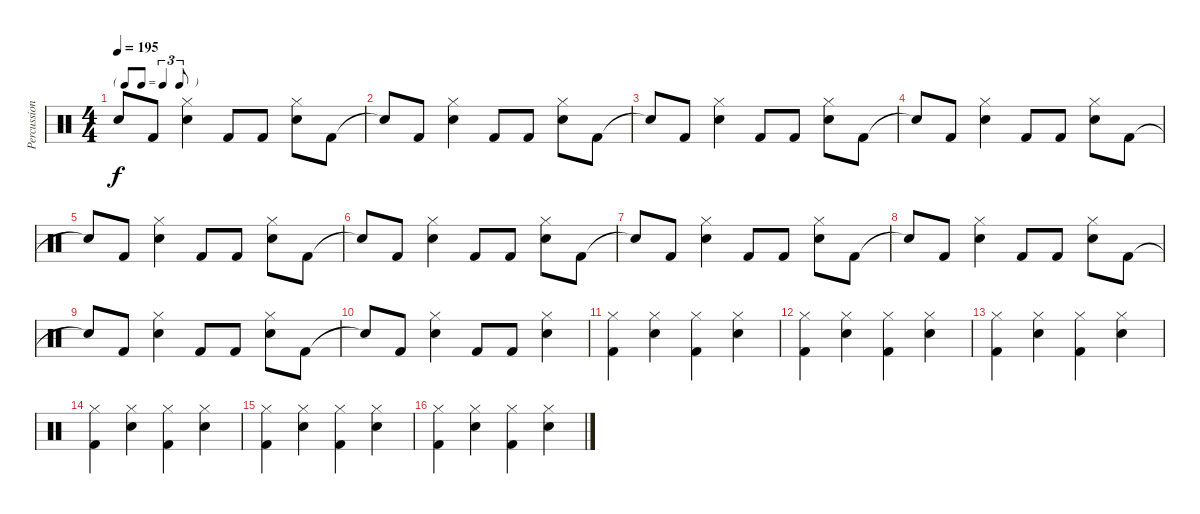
\track ("Percussions" "Percussion") {instrument percussion}
\staff {score}
\articulation defaults
\ts (4 4)
\tf triplet8th
\tempo 195
\clef neutral
\ks c "Snare (hit)"{t}.8{dy f} "Kick (hit) 2".8
("Snare (hit) 2" "Hi-Hat (closed)").4 "Kick (hit) 2".8 "Kick (hit) 2".8 ("Snare (hit) 2" "Hi-Hat (closed)").8 "Kick (hit) 2".8 |
"Snare (hit)"{t}.8 "Kick (hit) 2".8 ("Snare (hit) 2" "Hi-Hat (closed)").4 "Kick (hit) 2".8 "Kick (hit) 2".8 ("Snare (hit) 2" "Hi-Hat (closed)").8 "Kick (hit) 2".8 |
"Snare (hit)"{t}.8 "Kick (hit) 2".8 ("Snare (hit) 2" "Hi-Hat (closed)").4 "Kick (hit) 2".8 "Kick (hit) 2".8 ("Snare (hit) 2" "Hi-Hat (closed)").8 "Kick (hit) 2".8 |
"Snare (hit)"{t}.8 "Kick (hit) 2".8 ("Snare (hit) 2" "Hi-Hat (closed)").4 "Kick (hit) 2".8 "Kick (hit) 2".8 ("Snare (hit) 2" "Hi-Hat (closed)").8 "Kick (hit) 2".8 |
"Snare (hit)"{t}.8 "Kick (hit) 2".8 ("Snare (hit) 2" "Hi-Hat (closed)").4 "Kick (hit) 2".8 "Kick (hit) 2".8 ("Snare (hit) 2" "Hi-Hat (closed)").8 "Kick (hit) 2".8 |
"Snare (hit)"{t}.8 "Kick (hit) 2".8 ("Snare (hit) 2" "Hi-Hat (closed)").4 "Kick (hit) 2".8 "Kick (hit) 2".8 ("Snare (hit) 2" "Hi-Hat (closed)").8 "Kick (hit) 2".8 |
"Snare (hit)"{t}.8 "Kick (hit) 2".8 ("Snare (hit) 2" "Hi-Hat (closed)").4 "Kick (hit) 2".8 "Kick (hit) 2".8 ("Snare (hit) 2" "Hi-Hat (closed)").8 "Kick (hit) 2".8 |
"Snare (hit)"{t}.8 "Kick (hit) 2".8 ("Snare (hit) 2" "Hi-Hat (closed)").4 "Kick (hit) 2".8 "Kick (hit) 2".8 ("Snare (hit) 2" "Hi-Hat (closed)").8 "Kick (hit) 2".8 |
"Snare (hit)"{t}.8 "Kick (hit) 2".8 ("Snare (hit) 2" "Hi-Hat (closed)").4 "Kick (hit) 2".8 "Kick (hit) 2".8 ("Snare (hit) 2" "Hi-Hat (closed)").8 "Kick (hit) 2".8 |
"Snare (hit)"{t}.8 "Kick (hit) 2".8 ("Snare (hit) 2" "Hi-Hat (closed)").4 "Kick (hit) 2".8 "Kick (hit) 2".8 ("Snare (hit) 2" "Hi-Hat (closed)").4 |
("Hi-Hat (closed)" "Kick (hit) 2").4 ("Snare (hit) 2" "Hi-Hat (closed)").4 ("Hi-Hat (closed)" "Kick (hit) 2").4 ("Snare (hit) 2" "Hi-Hat (closed)").4 |
("Hi-Hat (closed)" "Kick (hit) 2").4 ("Snare (hit) 2" "Hi-Hat (closed)").4 ("Hi-Hat (closed)" "Kick (hit) 2").4 ("Snare (hit) 2" "Hi-Hat (closed)").4 |
("Hi-Hat (closed)" "Kick (hit) 2").4 ("Snare (hit) 2" "Hi-Hat (closed)").4 ("Hi-Hat (closed)" "Kick (hit) 2").4 ("Snare (hit) 2" "Hi-Hat (closed)").4 |
("Hi-Hat (closed)" "Kick (hit) 2").4 ("Snare (hit) 2" "Hi-Hat (closed)").4 ("Hi-Hat (closed)" "Kick (hit) 2").4 ("Snare (hit) 2" "Hi-Hat (closed)").4 |
("Hi-Hat (closed)" "Kick (hit) 2").4 ("Snare (hit) 2" "Hi-Hat (closed)").4 ("Hi-Hat (closed)" "Kick (hit) 2").4 ("Snare (hit) 2" "Hi-Hat (closed)").4 |
("Hi-Hat (closed)" "Kick (hit) 2").4 ("Snare (hit) 2" "Hi-Hat (closed)").4 ("Hi-Hat (closed)" "Kick (hit) 2").4 ("Snare (hit) 2" "Hi-Hat (closed)").4
